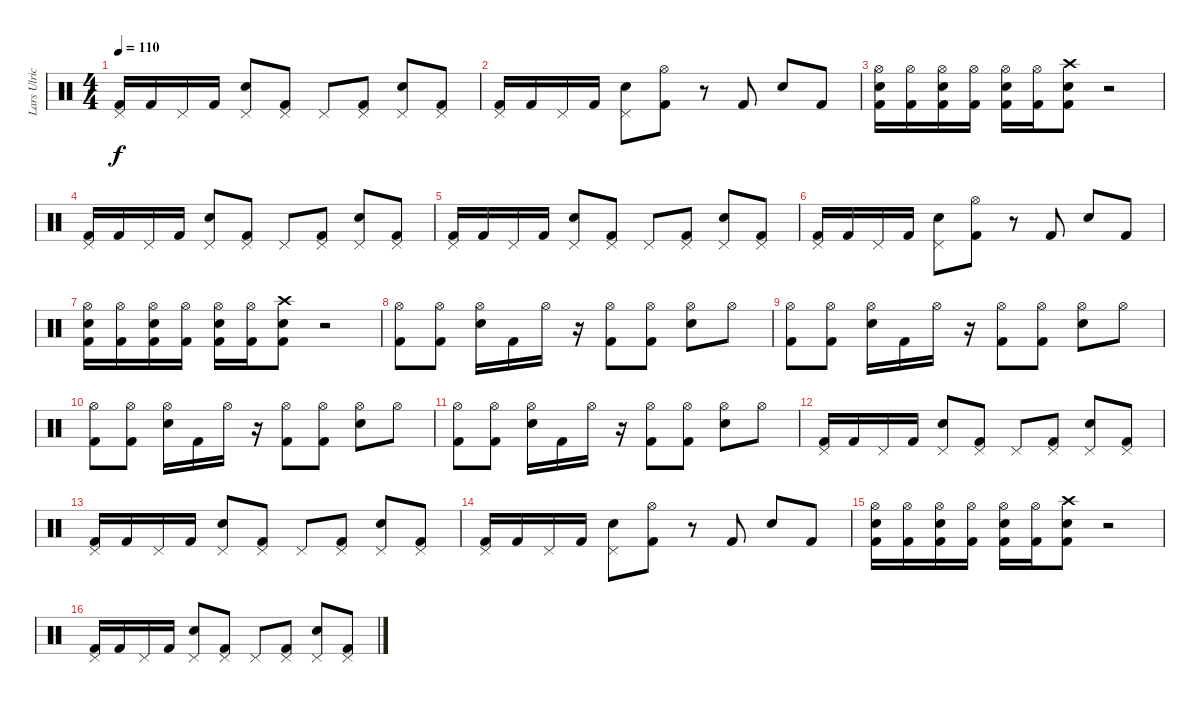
\track ("Lars Ulrich" "Lars Ulric") {instrument percussion}
\staff {score}
\articulation defaults
\ts (4 4)
\tempo 110
\clef neutral
\ks c
("Pedal Hi-Hat (hit)" "Kick (hit) 2").16{dy f} "Kick (hit) 2".16 "Pedal Hi-Hat (hit)".16 "Kick (hit) 2".16 ("Pedal Hi-Hat (hit)" "Electric Snare (hit)").8 ("Pedal Hi-Hat (hit)" "Kick (hit) 2").8 "Pedal Hi-Hat (hit)".8 ("Pedal Hi-Hat (hit)" "Kick (hit) 2").8 ("Pedal Hi-Hat (hit)" "Electric Snare (hit)").8 ("Pedal Hi-Hat (hit)" "Kick (hit) 2").8 |
("Pedal Hi-Hat (hit)" "Kick (hit) 2").16 "Kick (hit) 2".16 "Pedal Hi-Hat (hit)".16 "Kick (hit) 2".16 ("Pedal Hi-Hat (hit)" "Electric Snare (hit)").8 ("Hi-Hat (open)" "Kick (hit) 2").8 r.8 "Kick (hit) 2".8 "Electric Snare (hit)".8 "Kick (hit) 2".8 |
("Hi-Hat (open)" "Electric Snare (hit)" "Kick (hit) 2").16 ("Hi-Hat (open)" "Kick (hit) 2").16 ("Hi-Hat (open)" "Electric Snare (hit)" "Kick (hit) 2").16 ("Hi-Hat (open)" "Kick (hit) 2").16 ("Hi-Hat (open)" "Electric Snare (hit)" "Kick (hit) 2").16 ("Hi-Hat (open)" "Kick (hit) 2").16 ("Crash high (hit)" "Electric Snare (hit)" "Kick (hit) 2").8 r.2 |
("Pedal Hi-Hat (hit)" "Kick (hit) 2").16 "Kick (hit) 2".16 "Pedal Hi-Hat (hit)".16 "Kick (hit) 2".16 ("Pedal Hi-Hat (hit)" "Electric Snare (hit)").8 ("Pedal Hi-Hat (hit)" "Kick (hit) 2").8 "Pedal Hi-Hat (hit)".8 ("Pedal Hi-Hat (hit)" "Kick (hit) 2").8 ("Pedal Hi-Hat (hit)" "Electric Snare (hit)").8 ("Pedal Hi-Hat (hit)" "Kick (hit) 2").8 |
("Pedal Hi-Hat (hit)" "Kick (hit) 2").16 "Kick (hit) 2".16 "Pedal Hi-Hat (hit)".16 "Kick (hit) 2".16 ("Pedal Hi-Hat (hit)" "Electric Snare (hit)").8 ("Pedal Hi-Hat (hit)" "Kick (hit) 2").8 "Pedal Hi-Hat (hit)".8 ("Pedal Hi-Hat (hit)" "Kick (hit) 2").8 ("Pedal Hi-Hat (hit)" "Electric Snare (hit)").8 ("Pedal Hi-Hat (hit)" "Kick (hit) 2").8 |
("Pedal Hi-Hat (hit)" "Kick (hit) 2").16 "Kick (hit) 2".16 "Pedal Hi-Hat (hit)".16 "Kick (hit) 2".16 ("Pedal Hi-Hat (hit)" "Electric Snare (hit)").8 ("Hi-Hat (open)" "Kick (hit) 2").8 r.8 "Kick (hit) 2".8 "Electric Snare (hit)".8 "Kick (hit) 2".8 |
("Hi-Hat (open)" "Electric Snare (hit)" "Kick (hit) 2").16 ("Hi-Hat (open)" "Kick (hit) 2").16 ("Hi-Hat (open)" "Electric Snare (hit)" "Kick (hit) 2").16 ("Hi-Hat (open)" "Kick (hit) 2").16 ("Hi-Hat (open)" "Electric Snare (hit)" "Kick (hit) 2").16 ("Hi-Hat (open)" "Kick (hit) 2").16 ("Crash high (hit)" "Electric Snare (hit)" "Kick (hit) 2").8 r.2 |
("Hi-Hat (open)" "Kick (hit) 2").8 ("Hi-Hat (open)" "Kick (hit) 2").8 ("Hi-Hat (open)" "Electric Snare (hit)").16 "Kick (hit) 2".16 "Hi-Hat (open)".16 r.16 ("Hi-Hat (open)" "Kick (hit) 2").8 ("Hi-Hat (open)" "Kick (hit) 2").8 ("Hi-Hat (open)" "Electric Snare (hit)").8 "Hi-Hat (open)".8 |
("Hi-Hat (open)" "Kick (hit) 2").8 ("Hi-Hat (open)" "Kick (hit) 2").8 ("Hi-Hat (open)" "Electric Snare (hit)").16 "Kick (hit) 2".16 "Hi-Hat (open)".16 r.16 ("Hi-Hat (open)" "Kick (hit) 2").8 ("Hi-Hat (open)" "Kick (hit) 2").8 ("Hi-Hat (open)" "Electric Snare (hit)").8 "Hi-Hat (open)".8 |
("Hi-Hat (open)" "Kick (hit) 2").8 ("Hi-Hat (open)" "Kick (hit) 2").8 ("Hi-Hat (open)" "Electric Snare (hit)").16 "Kick (hit) 2".16 "Hi-Hat (open)".16 r.16 ("Hi-Hat (open)" "Kick (hit) 2").8 ("Hi-Hat (open)" "Kick (hit) 2").8 ("Hi-Hat (open)" "Electric Snare (hit)").8 "Hi-Hat (open)".8 |
("Hi-Hat (open)" "Kick (hit) 2").8 ("Hi-Hat (open)" "Kick (hit) 2").8 ("Hi-Hat (open)" "Electric Snare (hit)").16 "Kick (hit) 2".16 "Hi-Hat (open)".16 r.16 ("Hi-Hat (open)" "Kick (hit) 2").8 ("Hi-Hat (open)" "Kick (hit) 2").8 ("Hi-Hat (open)" "Electric Snare (hit)").8 "Hi-Hat (open)".8 |
("Pedal Hi-Hat (hit)" "Kick (hit) 2").16 "Kick (hit) 2".16 "Pedal Hi-Hat (hit)".16 "Kick (hit) 2".16 ("Pedal Hi-Hat (hit)" "Electric Snare (hit)").8 ("Pedal Hi-Hat (hit)" "Kick (hit) 2").8 "Pedal Hi-Hat (hit)".8 ("Pedal Hi-Hat (hit)" "Kick (hit) 2").8 ("Pedal Hi-Hat (hit)" "Electric Snare (hit)").8 ("Pedal Hi-Hat (hit)" "Kick (hit) 2").8 |
("Pedal Hi-Hat (hit)" "Kick (hit) 2").16 "Kick (hit) 2".16 "Pedal Hi-Hat (hit)".16 "Kick (hit) 2".16 ("Pedal Hi-Hat (hit)" "Electric Snare (hit)").8 ("Pedal Hi-Hat (hit)" "Kick (hit) 2").8 "Pedal Hi-Hat (hit)".8 ("Pedal Hi-Hat (hit)" "Kick (hit) 2").8 ("Pedal Hi-Hat (hit)" "Electric Snare (hit)").8 ("Pedal Hi-Hat (hit)" "Kick (hit) 2").8 |
("Pedal Hi-Hat (hit)" "Kick (hit) 2").16 "Kick (hit) 2".16 "Pedal Hi-Hat (hit)".16 "Kick (hit) 2".16 ("Pedal Hi-Hat (hit)" "Electric Snare (hit)").8 ("Hi-Hat (open)" "Kick (hit) 2").8 r.8 "Kick (hit) 2".8 "Electric Snare (hit)".8 "Kick (hit) 2".8 |
("Hi-Hat (open)" "Electric Snare (hit)" "Kick (hit) 2").16 ("Hi-Hat (open)" "Kick (hit) 2").16 ("Hi-Hat (open)" "Electric Snare (hit)" "Kick (hit) 2").16 ("Hi-Hat (open)" "Kick (hit) 2").16 ("Hi-Hat (open)" "Electric Snare (hit)" "Kick (hit) 2").16 ("Hi-Hat (open)" "Kick (hit) 2").16 ("Crash high (hit)" "Electric Snare (hit)" "Kick (hit) 2").8 r.2 |
("Pedal Hi-Hat (hit)" "Kick (hit) 2").16 "Kick (hit) 2".16 "Pedal Hi-Hat (hit)".16 "Kick (hit) 2".16 ("Pedal Hi-Hat (hit)" "Electric Snare (hit)").8 ("Pedal Hi-Hat (hit)" "Kick (hit) 2").8 "Pedal Hi-Hat (hit)".8 ("Pedal Hi-Hat (hit)" "Kick (hit) 2").8 ("Pedal Hi-Hat (hit)" "Electric Snare (hit)").8 ("Pedal Hi-Hat (hit)" "Kick (hit) 2").8
